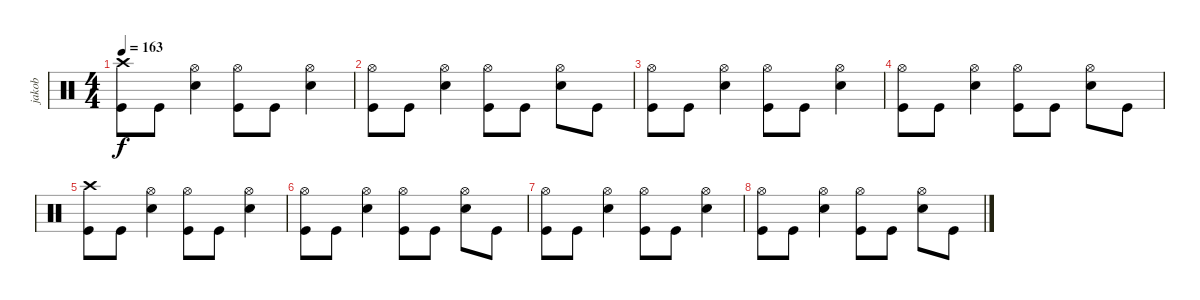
\track ("jakob" "jakob") {instrument percussion}
\staff {score}
\articulation defaults
\ts (4 4)
\tempo 163
\clef neutral
\ks c
("Crash high (hit)" "Kick (hit)").8{dy f} "Kick (hit)".8 ("Hi-Hat (open)" "Electric Snare (hit)").4 ("Hi-Hat (open)" "Kick (hit)").8 "Kick (hit)".8 ("Hi-Hat (open)" "Electric Snare (hit)").4 |
("Hi-Hat (open)" "Kick (hit)").8 "Kick (hit)".8 ("Hi-Hat (open)" "Electric Snare (hit)").4 ("Hi-Hat (open)" "Kick (hit)").8 "Kick (hit)".8 ("Hi-Hat (open)" "Electric Snare (hit)").8 "Kick (hit)".8 |
("Hi-Hat (open)" "Kick (hit)").8 "Kick (hit)".8 ("Hi-Hat (open)" "Electric Snare (hit)").4 ("Hi-Hat (open)" "Kick (hit)").8 "Kick (hit)".8 ("Hi-Hat (open)" "Electric Snare (hit)").4 |
("Hi-Hat (open)" "Kick (hit)").8 "Kick (hit)".8 ("Hi-Hat (open)" "Electric Snare (hit)").4 ("Hi-Hat (open)" "Kick (hit)").8 "Kick (hit)".8 ("Hi-Hat (open)" "Electric Snare (hit)").8 "Kick (hit)".8 |
("Crash high (hit)" "Kick (hit)").8 "Kick (hit)".8 ("Hi-Hat (open)" "Electric Snare (hit)").4 ("Hi-Hat (open)" "Kick (hit)").8 "Kick (hit)".8 ("Hi-Hat (open)" "Electric Snare (hit)").4 |
("Hi-Hat (open)" "Kick (hit)").8 "Kick (hit)".8 ("Hi-Hat (open)" "Electric Snare (hit)").4 ("Hi-Hat (open)" "Kick (hit)").8 "Kick (hit)".8 ("Hi-Hat (open)" "Electric Snare (hit)").8 "Kick (hit)".8 |
("Hi-Hat (open)" "Kick (hit)").8 "Kick (hit)".8 ("Hi-Hat (open)" "Electric Snare (hit)").4 ("Hi-Hat (open)" "Kick (hit)").8 "Kick (hit)".8 ("Hi-Hat (open)" "Electric Snare (hit)").4 |
("Hi-Hat (open)" "Kick (hit)").8 "Kick (hit)".8 ("Hi-Hat (open)" "Electric Snare (hit)").4 ("Hi-Hat (open)" "Kick (hit)").8 "Kick (hit)".8 ("Hi-Hat (open)" "Electric Snare (hit)").8 "Kick (hit)".8
